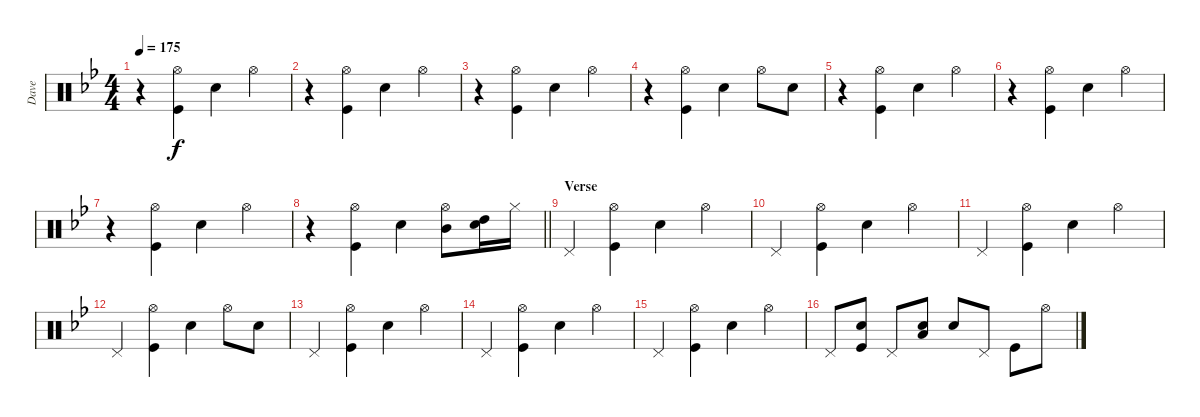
\track ("Dave" "Dave") {instrument percussion}
\staff {score}
\articulation defaults
\ts (4 4)
\tempo 175
\clef neutral
\ks gminor
r.4{dy f} ("Hi-Hat (open)" "Kick (hit)").4 "Snare (hit) 2".4 "Hi-Hat (open)".4 |
r.4 ("Hi-Hat (open)" "Kick (hit)").4 "Snare (hit) 2".4 "Hi-Hat (open)".4 |
r.4 ("Hi-Hat (open)" "Kick (hit)").4 "Snare (hit) 2".4 "Hi-Hat (open)".4 |
r.4 ("Hi-Hat (open)" "Kick (hit)").4 "Snare (hit) 2".4 "Hi-Hat (open)".8 "Snare (hit) 2".8 |
r.4 ("Hi-Hat (open)" "Kick (hit)").4 "Snare (hit) 2".4 "Hi-Hat (open)".4 |
r.4 ("Hi-Hat (open)" "Kick (hit)").4 "Snare (hit) 2".4 "Hi-Hat (open)".4 |
r.4 ("Hi-Hat (open)" "Kick (hit)").4 "Snare (hit) 2".4 "Hi-Hat (open)".4 |
\barLineRight lightlight
r.4 ("Hi-Hat (open)" "Kick (hit)").4 "Snare (hit) 2".4 ("Mid Tom (hit)" "Hi-Hat (open)").8 ("High Tom (hit)" "Snare (hit) 2").16 "Hi-Hat (closed)".16 |
\section ("" "Verse")
"Pedal Hi-Hat (hit)".4 ("Hi-Hat (open)" "Kick (hit)").4 "Snare (hit) 2".4 "Hi-Hat (open)".4 |
"Pedal Hi-Hat (hit)".4 ("Hi-Hat (open)" "Kick (hit)").4 "Snare (hit) 2".4 "Hi-Hat (open)".4 |
"Pedal Hi-Hat (hit)".4 ("Hi-Hat (open)" "Kick (hit)").4 "Snare (hit) 2".4 "Hi-Hat (open)".4 |
"Pedal Hi-Hat (hit)".4 ("Hi-Hat (open)" "Kick (hit)").4 "Snare (hit) 2".4 "Hi-Hat (open)".8 "Snare (hit) 2".8 |
"Pedal Hi-Hat (hit)".4 ("Hi-Hat (open)" "Kick (hit)").4 "Snare (hit) 2".4 "Hi-Hat (open)".4 |
"Pedal Hi-Hat (hit)".4 ("Hi-Hat (open)" "Kick (hit)").4 "Snare (hit) 2".4 "Hi-Hat (open)".4 |
"Pedal Hi-Hat (hit)".4 ("Hi-Hat (open)" "Kick (hit)").4 "Snare (hit) 2".4 "Hi-Hat (open)".4 |
"Pedal Hi-Hat (hit)".8 ("Snare (hit) 2" "Kick (hit)").8 "Pedal Hi-Hat (hit)".8 ("Low Tom (hit)" "Snare (hit) 2").8 "Snare (hit) 2".8 "Pedal Hi-Hat (hit)".8 "Kick (hit)".8 "Hi-Hat (open)".8
